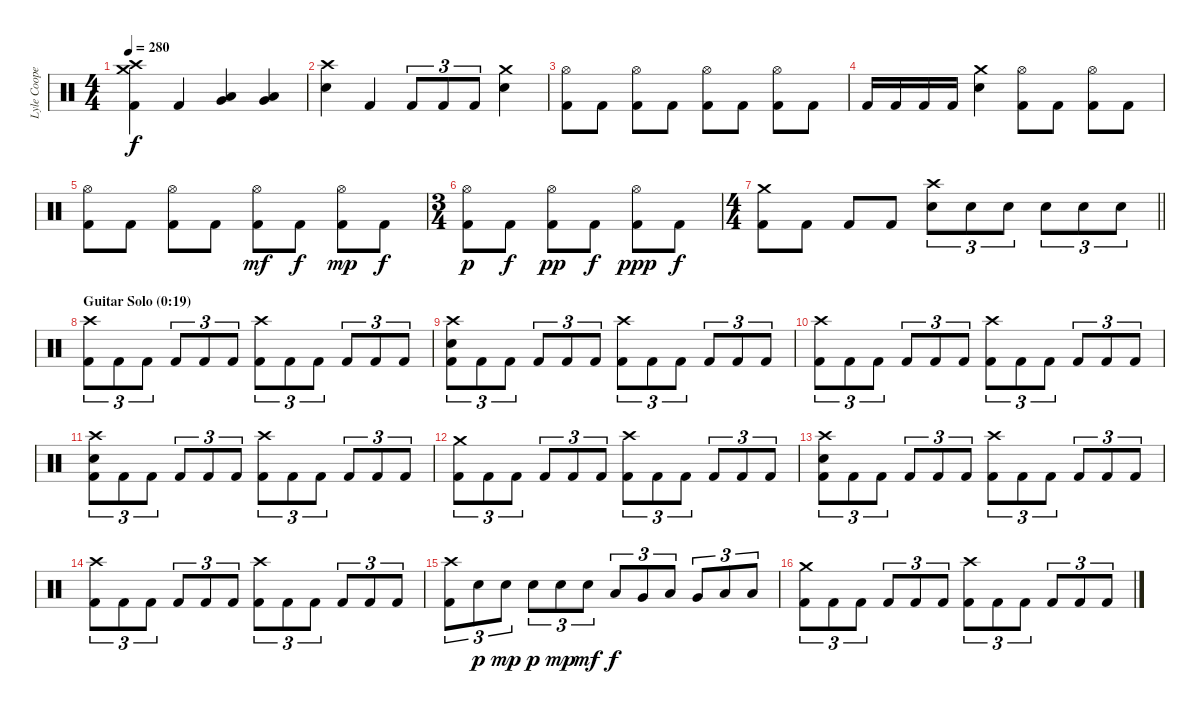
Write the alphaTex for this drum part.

\track ("Lyle Cooper [Drums]" "Lyle Coope") {instrument percussion}
\staff {score}
\articulation defaults
\ts (4 4)
\tempo 280
\clef neutral
\ks c
("Crash high (hit)" "Crash medium (hit)" "Kick (hit) 2").4{dy f} "Kick (hit) 2".4 ("Very Low Tom (hit)" "Low Floor Tom (hit)").4 ("Very Low Tom (hit)" "Low Floor Tom (hit)").4 |
("Crash high (hit)" "Electric Snare (hit)").4 "Kick (hit) 2".4 "Kick (hit) 2".8{tu (3 2)} "Kick (hit) 2".8{tu (3 2)} "Kick (hit) 2".8{tu (3 2)} ("Crash medium (hit)" "Electric Snare (hit)").4 |
("Hi-Hat (open)" "Kick (hit) 2").8 "Kick (hit) 2".8 ("Hi-Hat (open)" "Kick (hit) 2").8 "Kick (hit) 2".8 ("Hi-Hat (open)" "Kick (hit) 2").8 "Kick (hit) 2".8 ("Hi-Hat (open)" "Kick (hit) 2").8 "Kick (hit) 2".8 |
"Kick (hit) 2".16 "Kick (hit) 2".16 "Kick (hit) 2".16 "Kick (hit) 2".16 ("Crash medium (hit)" "Electric Snare (hit)").4 ("Hi-Hat (open)" "Kick (hit) 2").8 "Kick (hit) 2".8 ("Hi-Hat (open)" "Kick (hit) 2").8 "Kick (hit) 2".8 |
("Hi-Hat (open)" "Kick (hit) 2").8 "Kick (hit) 2".8 ("Hi-Hat (open)" "Kick (hit) 2").8 "Kick (hit) 2".8 ("Hi-Hat (open)" "Kick (hit) 2").8{dy mf} "Kick (hit) 2".8{dy f} ("Hi-Hat (open)" "Kick (hit) 2").8{dy mp} "Kick (hit) 2".8{dy f} |
\ts (3 4)
("Hi-Hat (open)" "Kick (hit) 2").8{dy p} "Kick (hit) 2".8{dy f} ("Hi-Hat (open)" "Kick (hit) 2").8{dy pp} "Kick (hit) 2".8{dy f} ("Hi-Hat (open)" "Kick (hit) 2").8{dy ppp} "Kick (hit) 2".8{dy f} |
\ts (4 4)
\barLineRight lightlight
("Crash medium (hit)" "Kick (hit) 2").8 "Kick (hit) 2".8 "Kick (hit) 2".8 "Kick (hit) 2".8 ("Crash high (hit)" "Electric Snare (hit)").8{tu (3 2)} "Electric Snare (hit)".8{tu (3 2)} "Electric Snare (hit)".8{tu (3 2)} "Electric Snare (hit)".8{tu (3 2)} "Electric Snare (hit)".8{tu (3 2)} "Electric Snare (hit)".8{tu (3 2)} |
\section ("" "Guitar Solo (0:19)")
("Crash high (hit)" "Kick (hit) 2").8{tu (3 2)} "Kick (hit) 2".8{tu (3 2)} "Kick (hit) 2".8{tu (3 2)} "Kick (hit) 2".8{tu (3 2)} "Kick (hit) 2".8{tu (3 2)} "Kick (hit) 2".8{tu (3 2)} ("Crash high (hit)" "Kick (hit) 2").8{tu (3 2)} "Kick (hit) 2".8{tu (3 2)} "Kick (hit) 2".8{tu (3 2)} "Kick (hit) 2".8{tu (3 2)} "Kick (hit) 2".8{tu (3 2)} "Kick (hit) 2".8{tu (3 2)} |
("Crash high (hit)" "Electric Snare (hit)" "Kick (hit) 2").8{tu (3 2)} "Kick (hit) 2".8{tu (3 2)} "Kick (hit) 2".8{tu (3 2)} "Kick (hit) 2".8{tu (3 2)} "Kick (hit) 2".8{tu (3 2)} "Kick (hit) 2".8{tu (3 2)} ("Crash high (hit)" "Kick (hit) 2").8{tu (3 2)} "Kick (hit) 2".8{tu (3 2)} "Kick (hit) 2".8{tu (3 2)} "Kick (hit) 2".8{tu (3 2)} "Kick (hit) 2".8{tu (3 2)} "Kick (hit) 2".8{tu (3 2)} |
("Crash high (hit)" "Kick (hit) 2").8{tu (3 2)} "Kick (hit) 2".8{tu (3 2)} "Kick (hit) 2".8{tu (3 2)} "Kick (hit) 2".8{tu (3 2)} "Kick (hit) 2".8{tu (3 2)} "Kick (hit) 2".8{tu (3 2)} ("Crash high (hit)" "Kick (hit) 2").8{tu (3 2)} "Kick (hit) 2".8{tu (3 2)} "Kick (hit) 2".8{tu (3 2)} "Kick (hit) 2".8{tu (3 2)} "Kick (hit) 2".8{tu (3 2)} "Kick (hit) 2".8{tu (3 2)} |
("Crash high (hit)" "Electric Snare (hit)" "Kick (hit) 2").8{tu (3 2)} "Kick (hit) 2".8{tu (3 2)} "Kick (hit) 2".8{tu (3 2)} "Kick (hit) 2".8{tu (3 2)} "Kick (hit) 2".8{tu (3 2)} "Kick (hit) 2".8{tu (3 2)} ("Crash high (hit)" "Kick (hit) 2").8{tu (3 2)} "Kick (hit) 2".8{tu (3 2)} "Kick (hit) 2".8{tu (3 2)} "Kick (hit) 2".8{tu (3 2)} "Kick (hit) 2".8{tu (3 2)} "Kick (hit) 2".8{tu (3 2)} |
("Crash medium (hit)" "Kick (hit) 2").8{tu (3 2)} "Kick (hit) 2".8{tu (3 2)} "Kick (hit) 2".8{tu (3 2)} "Kick (hit) 2".8{tu (3 2)} "Kick (hit) 2".8{tu (3 2)} "Kick (hit) 2".8{tu (3 2)} ("Crash high (hit)" "Kick (hit) 2").8{tu (3 2)} "Kick (hit) 2".8{tu (3 2)} "Kick (hit) 2".8{tu (3 2)} "Kick (hit) 2".8{tu (3 2)} "Kick (hit) 2".8{tu (3 2)} "Kick (hit) 2".8{tu (3 2)} |
("Crash high (hit)" "Electric Snare (hit)" "Kick (hit) 2").8{tu (3 2)} "Kick (hit) 2".8{tu (3 2)} "Kick (hit) 2".8{tu (3 2)} "Kick (hit) 2".8{tu (3 2)} "Kick (hit) 2".8{tu (3 2)} "Kick (hit) 2".8{tu (3 2)} ("Crash high (hit)" "Kick (hit) 2").8{tu (3 2)} "Kick (hit) 2".8{tu (3 2)} "Kick (hit) 2".8{tu (3 2)} "Kick (hit) 2".8{tu (3 2)} "Kick (hit) 2".8{tu (3 2)} "Kick (hit) 2".8{tu (3 2)} |
("Crash high (hit)" "Kick (hit) 2").8{tu (3 2)} "Kick (hit) 2".8{tu (3 2)} "Kick (hit) 2".8{tu (3 2)} "Kick (hit) 2".8{tu (3 2)} "Kick (hit) 2".8{tu (3 2)} "Kick (hit) 2".8{tu (3 2)} ("Crash high (hit)" "Kick (hit) 2").8{tu (3 2)} "Kick (hit) 2".8{tu (3 2)} "Kick (hit) 2".8{tu (3 2)} "Kick (hit) 2".8{tu (3 2)} "Kick (hit) 2".8{tu (3 2)} "Kick (hit) 2".8{tu (3 2)} |
("Crash high (hit)" "Kick (hit) 2").8{tu (3 2)} "Electric Snare (hit)".8{tu (3 2) dy p} "Electric Snare (hit)".8{tu (3 2) dy mp} "Electric Snare (hit)".8{tu (3 2) dy p} "Electric Snare (hit)".8{tu (3 2) dy mp} "Electric Snare (hit)".8{tu (3 2) dy mf} "Low Tom (hit)".8{tu (3 2) dy f} "Very Low Tom (hit)".8{tu (3 2)} "Low Tom (hit)".8{tu (3 2)} "Very Low Tom (hit)".8{tu (3 2)} "Low Tom (hit)".8{tu (3 2)} "Low Tom (hit)".8{tu (3 2)} |
("Crash medium (hit)" "Kick (hit) 2").8{tu (3 2)} "Kick (hit) 2".8{tu (3 2)} "Kick (hit) 2".8{tu (3 2)} "Kick (hit) 2".8{tu (3 2)} "Kick (hit) 2".8{tu (3 2)} "Kick (hit) 2".8{tu (3 2)} ("Crash high (hit)" "Kick (hit) 2").8{tu (3 2)} "Kick (hit) 2".8{tu (3 2)} "Kick (hit) 2".8{tu (3 2)} "Kick (hit) 2".8{tu (3 2)} "Kick (hit) 2".8{tu (3 2)} "Kick (hit) 2".8{tu (3 2)}
